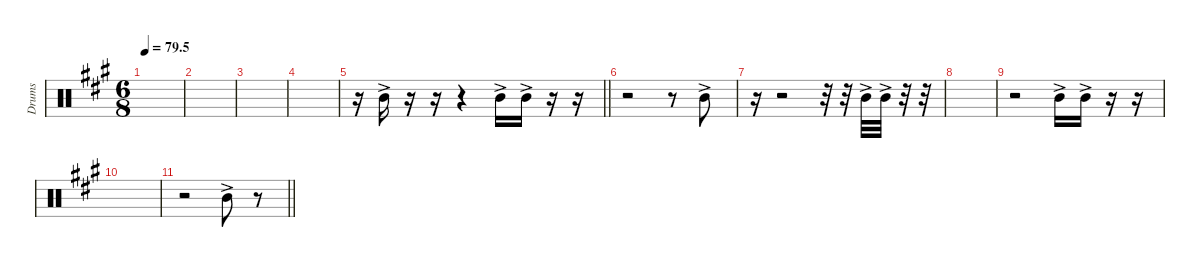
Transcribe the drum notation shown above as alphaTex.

\defaultSystemsLayout 4
\hideDynamics
\bracketExtendMode nobrackets
\otherSystemsTrackNameOrientation horizontal
\track ("Tom 02" "Drums") {instrument percussion}
\staff {score}
\articulation defaults
\ts (6 8)
\tempo
79.5
\accidentals auto
\clef neutral
\ottava regular
\simile none
\scale
0.333333
\ks a
|
\scale
0.333333 |
\scale
0.333333 |
\scale
0.333333 |
\scale
0.333333
\barLineRight lightlight
r.16 "Mid Tom (hit)"{ac acc forcenatural}.16 r.16 r.16 r.4 "Mid Tom (hit)"{ac acc forcenatural}.16 "Mid Tom (hit)"{ac acc forcenatural}.16 r.16 r.16 |
\scale
0.333333 r.2 r.8 "Mid Tom (hit)"{ac acc forcenatural}.8 |
\scale
0.333333 r.16 r.2 r.32 r.32 "Mid Tom (hit)"{ac acc forcenatural}.32 "Mid Tom (hit)"{ac acc forcenatural}.32 r.32 r.32 |
\scale
0.333333 |
\scale
0.333333 r.2 "Mid Tom (hit)"{ac acc forcenatural}.16 "Mid Tom (hit)"{ac acc forcenatural}.16 r.16 r.16 |
\scale
0.333333 |
\scale
0.333333
\barLineRight lightlight
r.2 "Mid Tom (hit)"{ac acc forcenatural}.8 r.8 |
\scale
0.333333 |
\scale
0.333333 |
\scale
0.333333 |
\scale
0.333333 |
\scale
0.333333
